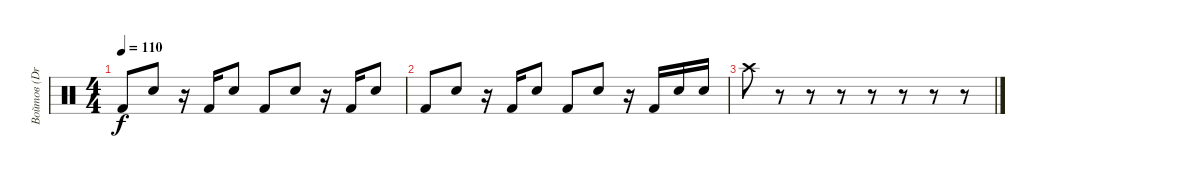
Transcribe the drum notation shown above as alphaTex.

\track ("Войтов (Drums)" "Войтов (Dr") {instrument percussion}
\staff {score}
\articulation defaults
\ts (4 4)
\tempo 110
\clef neutral
\ks c "Kick (hit) 2".8{dy f} "Electric Snare (hit)".8
r.16 "Kick (hit) 2".16 "Electric Snare (hit)".8 "Kick (hit) 2".8 "Electric Snare (hit)".8 r.16 "Kick (hit) 2".16 "Electric Snare (hit)".8 |
"Kick (hit) 2".8 "Electric Snare (hit)".8 r.16 "Kick (hit) 2".16 "Electric Snare (hit)".8 "Kick (hit) 2".8 "Electric Snare (hit)".8 r.16 "Kick (hit) 2".16 "Electric Snare (hit)".16 "Electric Snare (hit)".16 |
"Crash high (hit)".8 r.8 r.8 r.8 r.8 r.8 r.8 r.8
